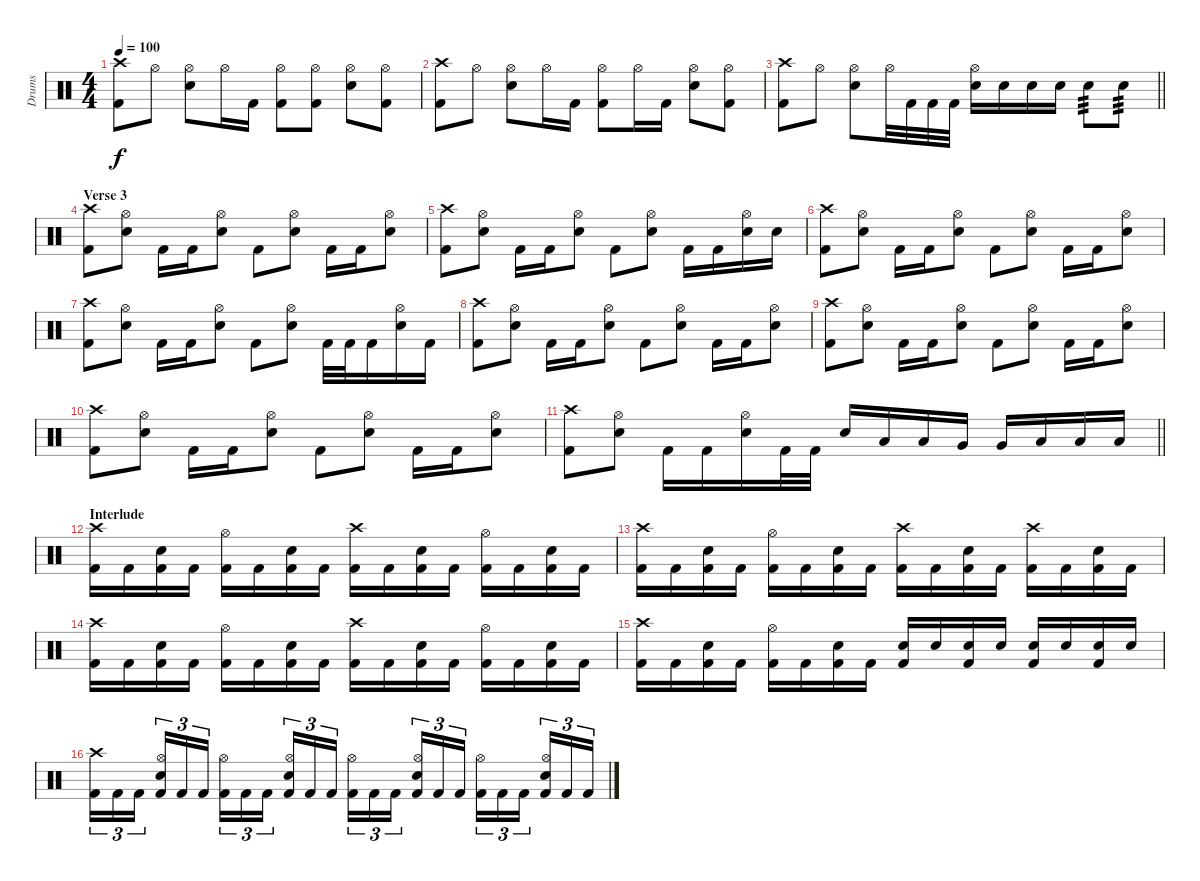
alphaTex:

\track ("Drums" "Drums") {instrument percussion}
\staff {score}
\articulation defaults
\ts (4 4)
\tempo 100
\clef neutral
\ks c
("Crash high (hit)" "Kick (hit) 2").8{dy f} "Hi-Hat (open)".8 ("Hi-Hat (open)" "Snare (hit) 2").8 "Hi-Hat (open)".16 "Kick (hit) 2".16 ("Hi-Hat (open)" "Kick (hit) 2").8 ("Hi-Hat (open)" "Kick (hit) 2").8 ("Hi-Hat (open)" "Snare (hit) 2").8 ("Hi-Hat (open)" "Kick (hit) 2").8 |
("Crash high (hit)" "Kick (hit) 2").8 "Hi-Hat (open)".8 ("Hi-Hat (open)" "Snare (hit) 2").8 "Hi-Hat (open)".16 "Kick (hit) 2".16 ("Hi-Hat (open)" "Kick (hit) 2").8 "Hi-Hat (open)".16 "Kick (hit) 2".16 ("Hi-Hat (open)" "Snare (hit) 2").8 ("Hi-Hat (open)" "Kick (hit) 2").8 |
\barLineRight lightlight
("Crash high (hit)" "Kick (hit) 2").8 "Hi-Hat (open)".8 ("Hi-Hat (open)" "Snare (hit) 2").8 "Hi-Hat (open)".32 "Kick (hit) 2".32 "Kick (hit) 2".32 "Kick (hit) 2".32 ("Hi-Hat (open)" "Snare (hit) 2").16 "Snare (hit) 2".16 "Snare (hit) 2".16 "Snare (hit) 2".16 "Snare (hit) 2".8{tp 3} "Snare (hit) 2".8{tp 3} |
\section ("" "Verse 3")
("Crash high (hit)" "Kick (hit) 2").8 ("Hi-Hat (open)" "Snare (hit) 2").8 "Kick (hit) 2".16 "Kick (hit) 2".16 ("Hi-Hat (open)" "Snare (hit) 2").8 "Kick (hit) 2".8 ("Hi-Hat (open)" "Snare (hit) 2").8 "Kick (hit) 2".16 "Kick (hit) 2".16 ("Hi-Hat (open)" "Snare (hit) 2").8 |
("Crash high (hit)" "Kick (hit) 2").8 ("Hi-Hat (open)" "Snare (hit) 2").8 "Kick (hit) 2".16 "Kick (hit) 2".16 ("Hi-Hat (open)" "Snare (hit) 2").8 "Kick (hit) 2".8 ("Hi-Hat (open)" "Snare (hit) 2").8 "Kick (hit) 2".16 "Kick (hit) 2".16 ("Hi-Hat (open)" "Snare (hit) 2").16 "Snare (hit) 2".16 |
("Crash high (hit)" "Kick (hit) 2").8 ("Hi-Hat (open)" "Snare (hit) 2").8 "Kick (hit) 2".16 "Kick (hit) 2".16 ("Hi-Hat (open)" "Snare (hit) 2").8 "Kick (hit) 2".8 ("Hi-Hat (open)" "Snare (hit) 2").8 "Kick (hit) 2".16 "Kick (hit) 2".16 ("Hi-Hat (open)" "Snare (hit) 2").8 |
("Crash high (hit)" "Kick (hit) 2").8 ("Hi-Hat (open)" "Snare (hit) 2").8 "Kick (hit) 2".16 "Kick (hit) 2".16 ("Hi-Hat (open)" "Snare (hit) 2").8 "Kick (hit) 2".8 ("Hi-Hat (open)" "Snare (hit) 2").8 "Kick (hit) 2".32 "Kick (hit) 2".32 "Kick (hit) 2".16 ("Hi-Hat (open)" "Snare (hit) 2").16 "Kick (hit) 2".16 |
("Crash high (hit)" "Kick (hit) 2").8 ("Hi-Hat (open)" "Snare (hit) 2").8 "Kick (hit) 2".16 "Kick (hit) 2".16 ("Hi-Hat (open)" "Snare (hit) 2").8 "Kick (hit) 2".8 ("Hi-Hat (open)" "Snare (hit) 2").8 "Kick (hit) 2".16 "Kick (hit) 2".16 ("Hi-Hat (open)" "Snare (hit) 2").8 |
("Crash high (hit)" "Kick (hit) 2").8 ("Hi-Hat (open)" "Snare (hit) 2").8 "Kick (hit) 2".16 "Kick (hit) 2".16 ("Hi-Hat (open)" "Snare (hit) 2").8 "Kick (hit) 2".8 ("Hi-Hat (open)" "Snare (hit) 2").8 "Kick (hit) 2".16 "Kick (hit) 2".16 ("Hi-Hat (open)" "Snare (hit) 2").8 |
("Crash high (hit)" "Kick (hit) 2").8 ("Hi-Hat (open)" "Snare (hit) 2").8 "Kick (hit) 2".16 "Kick (hit) 2".16 ("Hi-Hat (open)" "Snare (hit) 2").8 "Kick (hit) 2".8 ("Hi-Hat (open)" "Snare (hit) 2").8 "Kick (hit) 2".16 "Kick (hit) 2".16 ("Hi-Hat (open)" "Snare (hit) 2").8 |
\barLineRight lightlight
("Crash high (hit)" "Kick (hit) 2").8 ("Hi-Hat (open)" "Snare (hit) 2").8 "Kick (hit) 2".16 "Kick (hit) 2".16 ("Hi-Hat (open)" "Snare (hit) 2").16 "Kick (hit) 2".32 "Kick (hit) 2".32 "Snare (hit) 2".16 "Low Tom (hit)".16 "Low Tom (hit)".16 "Very Low Tom (hit)".16 "Very Low Tom (hit)".16 "Low Floor Tom (hit)".16 "Low Floor Tom (hit)".16 "Low Floor Tom (hit)".16 |
\section ("" "Interlude")
("Crash high (hit)" "Kick (hit) 2").16 "Kick (hit) 2".16 ("Snare (hit) 2" "Kick (hit) 2").16 "Kick (hit) 2".16 ("Hi-Hat (open)" "Kick (hit) 2").16 "Kick (hit) 2".16 ("Snare (hit) 2" "Kick (hit) 2").16 "Kick (hit) 2".16 ("Crash high (hit)" "Kick (hit) 2").16 "Kick (hit) 2".16 ("Snare (hit) 2" "Kick (hit) 2").16 "Kick (hit) 2".16 ("Hi-Hat (open)" "Kick (hit) 2").16 "Kick (hit) 2".16 ("Snare (hit) 2" "Kick (hit) 2").16 "Kick (hit) 2".16 |
("Crash high (hit)" "Kick (hit) 2").16 "Kick (hit) 2".16 ("Snare (hit) 2" "Kick (hit) 2").16 "Kick (hit) 2".16 ("Hi-Hat (open)" "Kick (hit) 2").16 "Kick (hit) 2".16 ("Snare (hit) 2" "Kick (hit) 2").16 "Kick (hit) 2".16 ("Crash high (hit)" "Kick (hit) 2").16 "Kick (hit) 2".16 ("Snare (hit) 2" "Kick (hit) 2").16 "Kick (hit) 2".16 ("Crash high (hit)" "Kick (hit) 2").16 "Kick (hit) 2".16 ("Snare (hit) 2" "Kick (hit) 2").16 "Kick (hit) 2".16 |
("Crash high (hit)" "Kick (hit) 2").16 "Kick (hit) 2".16 ("Snare (hit) 2" "Kick (hit) 2").16 "Kick (hit) 2".16 ("Hi-Hat (open)" "Kick (hit) 2").16 "Kick (hit) 2".16 ("Snare (hit) 2" "Kick (hit) 2").16 "Kick (hit) 2".16 ("Crash high (hit)" "Kick (hit) 2").16 "Kick (hit) 2".16 ("Snare (hit) 2" "Kick (hit) 2").16 "Kick (hit) 2".16 ("Hi-Hat (open)" "Kick (hit) 2").16 "Kick (hit) 2".16 ("Snare (hit) 2" "Kick (hit) 2").16 "Kick (hit) 2".16 |
("Crash high (hit)" "Kick (hit) 2").16 "Kick (hit) 2".16 ("Snare (hit) 2" "Kick (hit) 2").16 "Kick (hit) 2".16 ("Hi-Hat (open)" "Kick (hit) 2").16 "Kick (hit) 2".16 ("Snare (hit) 2" "Kick (hit) 2").16 "Kick (hit) 2".16 ("Snare (hit) 2" "Kick (hit) 2").16 "Snare (hit) 2".16 ("Snare (hit) 2" "Kick (hit) 2").16 "Snare (hit) 2".16 ("Snare (hit) 2" "Kick (hit) 2").16 "Snare (hit) 2".16 ("Snare (hit) 2" "Kick (hit) 2").16 "Snare (hit) 2".16 |
("Crash high (hit)" "Kick (hit) 2").16{tu (3 2)} "Kick (hit) 2".16{tu (3 2)} "Kick (hit) 2".16{tu (3 2) beam splitsecondary} ("Hi-Hat (open)" "Snare (hit) 2" "Kick (hit) 2").16{tu (3 2)} "Kick (hit) 2".16{tu (3 2)} "Kick (hit) 2".16{tu (3 2)} ("Hi-Hat (open)" "Kick (hit) 2").16{tu (3 2)} "Kick (hit) 2".16{tu (3 2)} "Kick (hit) 2".16{tu (3 2) beam splitsecondary} ("Hi-Hat (open)" "Snare (hit) 2" "Kick (hit) 2").16{tu (3 2)} "Kick (hit) 2".16{tu (3 2)} "Kick (hit) 2".16{tu (3 2)} ("Hi-Hat (open)" "Kick (hit) 2").16{tu (3 2)} "Kick (hit) 2".16{tu (3 2)} "Kick (hit) 2".16{tu (3 2) beam splitsecondary} ("Hi-Hat (open)" "Snare (hit) 2" "Kick (hit) 2").16{tu (3 2)} "Kick (hit) 2".16{tu (3 2)} "Kick (hit) 2".16{tu (3 2)} ("Hi-Hat (open)" "Kick (hit) 2").16{tu (3 2)} "Kick (hit) 2".16{tu (3 2)} "Kick (hit) 2".16{tu (3 2) beam splitsecondary} ("Hi-Hat (open)" "Snare (hit) 2" "Kick (hit) 2").16{tu (3 2)} "Kick (hit) 2".16{tu (3 2)} "Kick (hit) 2".16{tu (3 2)}
